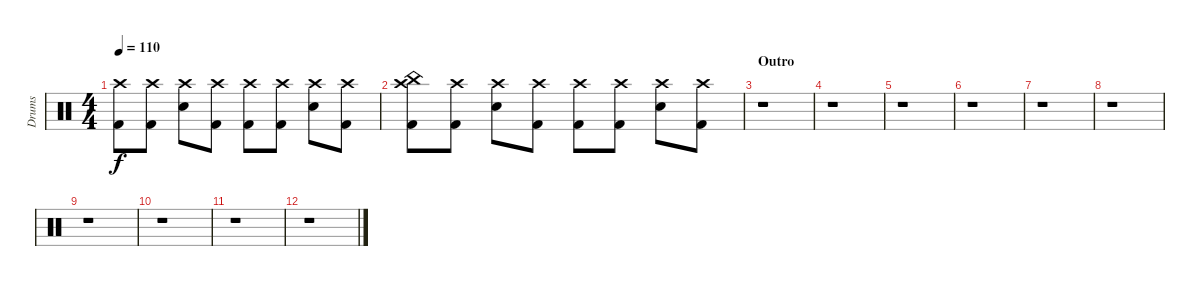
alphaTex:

\track ("Drums" "Drums") {instrument percussion}
\staff {score}
\articulation defaults
\ts (4 4)
\tempo 110
\clef neutral
\ks c
("Crash high (hit)" "Kick (hit) 2").8{dy f} ("Crash high (hit)" "Kick (hit) 2").8 ("Crash high (hit)" "Snare (hit) 2").8 ("Crash high (hit)" "Kick (hit) 2").8 ("Crash high (hit)" "Kick (hit) 2").8 ("Crash high (hit)" "Kick (hit) 2").8 ("Crash high (hit)" "Snare (hit) 2").8 ("Crash high (hit)" "Kick (hit) 2").8 |
("Crash high (hit)" "China (hit)" "Kick (hit) 2").8 ("Crash high (hit)" "Kick (hit) 2").8 ("Crash high (hit)" "Snare (hit) 2").8 ("Crash high (hit)" "Kick (hit) 2").8 ("Crash high (hit)" "Kick (hit) 2").8 ("Crash high (hit)" "Kick (hit) 2").8 ("Crash high (hit)" "Snare (hit) 2").8 ("Crash high (hit)" "Kick (hit) 2").8 |
\section ("" "Outro")
r.1 |
r.1 |
r.1 |
r.1 |
r.1 |
r.1 |
r.1 |
r.1 |
r.1 |
r.1
